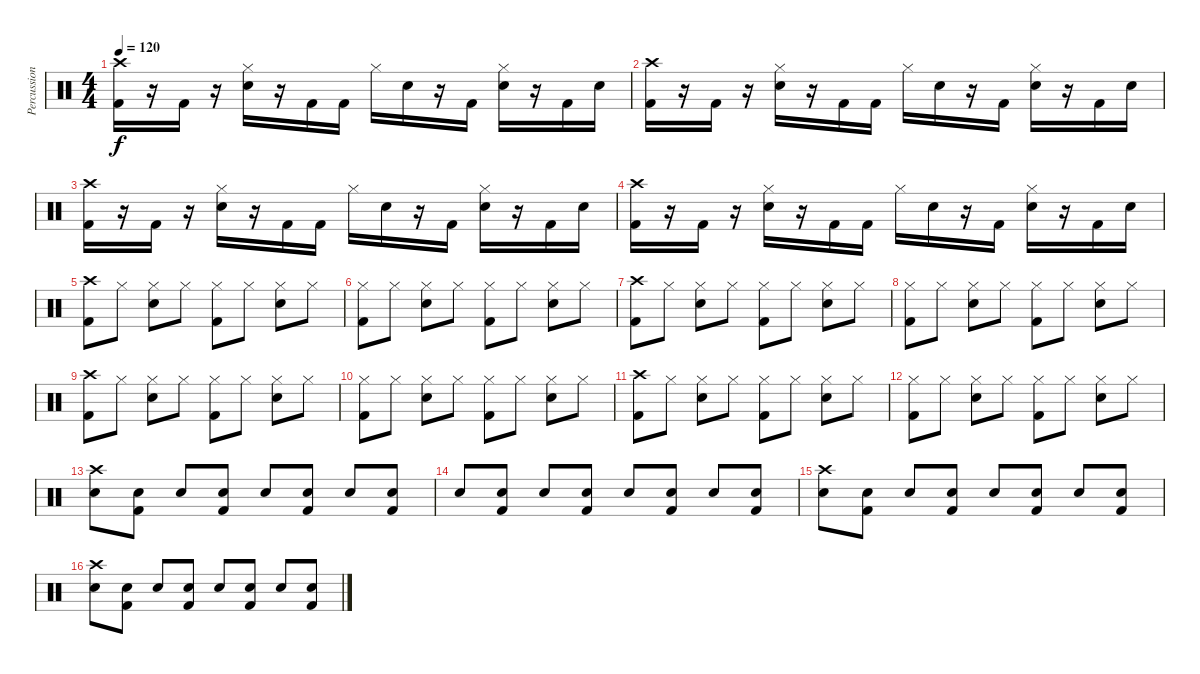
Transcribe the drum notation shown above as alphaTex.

\track ("Percussion" "Percussion") {instrument percussion}
\staff {score}
\articulation defaults
\ts (4 4)
\tempo 120
\clef neutral
\ks c
("Crash high (hit)" "Kick (hit) 2").16{dy f} r.16 "Kick (hit) 2".16 r.16 ("Hi-Hat (closed)" "Electric Snare (hit)").16 r.16 "Kick (hit) 2".16 "Kick (hit) 2".16 "Hi-Hat (closed)".16 "Electric Snare (hit)".16 r.16 "Kick (hit) 2".16 ("Hi-Hat (closed)" "Electric Snare (hit)").16 r.16 "Kick (hit) 2".16 "Electric Snare (hit)".16 |
("Crash high (hit)" "Kick (hit) 2").16 r.16 "Kick (hit) 2".16 r.16 ("Hi-Hat (closed)" "Electric Snare (hit)").16 r.16 "Kick (hit) 2".16 "Kick (hit) 2".16 "Hi-Hat (closed)".16 "Electric Snare (hit)".16 r.16 "Kick (hit) 2".16 ("Hi-Hat (closed)" "Electric Snare (hit)").16 r.16 "Kick (hit) 2".16 "Electric Snare (hit)".16 |
("Crash high (hit)" "Kick (hit) 2").16 r.16 "Kick (hit) 2".16 r.16 ("Hi-Hat (closed)" "Electric Snare (hit)").16 r.16 "Kick (hit) 2".16 "Kick (hit) 2".16 "Hi-Hat (closed)".16 "Electric Snare (hit)".16 r.16 "Kick (hit) 2".16 ("Hi-Hat (closed)" "Electric Snare (hit)").16 r.16 "Kick (hit) 2".16 "Electric Snare (hit)".16 |
("Crash high (hit)" "Kick (hit) 2").16 r.16 "Kick (hit) 2".16 r.16 ("Hi-Hat (closed)" "Electric Snare (hit)").16 r.16 "Kick (hit) 2".16 "Kick (hit) 2".16 "Hi-Hat (closed)".16 "Electric Snare (hit)".16 r.16 "Kick (hit) 2".16 ("Hi-Hat (closed)" "Electric Snare (hit)").16 r.16 "Kick (hit) 2".16 "Electric Snare (hit)".16 |
("Crash high (hit)" "Kick (hit) 2").8 "Hi-Hat (closed)".8 ("Hi-Hat (closed)" "Snare (hit) 2").8 "Hi-Hat (closed)".8 ("Hi-Hat (closed)" "Kick (hit) 2").8 "Hi-Hat (closed)".8 ("Hi-Hat (closed)" "Electric Snare (hit)").8 "Hi-Hat (closed)".8 |
("Hi-Hat (closed)" "Kick (hit) 2").8 "Hi-Hat (closed)".8 ("Hi-Hat (closed)" "Snare (hit) 2").8 "Hi-Hat (closed)".8 ("Hi-Hat (closed)" "Kick (hit) 2").8 "Hi-Hat (closed)".8 ("Hi-Hat (closed)" "Snare (hit) 2").8 "Hi-Hat (closed)".8 |
("Crash high (hit)" "Kick (hit) 2").8 "Hi-Hat (closed)".8 ("Hi-Hat (closed)" "Snare (hit) 2").8 "Hi-Hat (closed)".8 ("Hi-Hat (closed)" "Kick (hit) 2").8 "Hi-Hat (closed)".8 ("Hi-Hat (closed)" "Snare (hit) 2").8 "Hi-Hat (closed)".8 |
("Hi-Hat (closed)" "Kick (hit) 2").8 "Hi-Hat (closed)".8 ("Hi-Hat (closed)" "Snare (hit) 2").8 "Hi-Hat (closed)".8 ("Hi-Hat (closed)" "Kick (hit) 2").8 "Hi-Hat (closed)".8 ("Hi-Hat (closed)" "Snare (hit) 2").8 "Hi-Hat (closed)".8 |
("Crash high (hit)" "Kick (hit) 2").8 "Hi-Hat (closed)".8 ("Hi-Hat (closed)" "Snare (hit) 2").8 "Hi-Hat (closed)".8 ("Hi-Hat (closed)" "Kick (hit) 2").8 "Hi-Hat (closed)".8 ("Hi-Hat (closed)" "Snare (hit) 2").8 "Hi-Hat (closed)".8 |
("Hi-Hat (closed)" "Kick (hit) 2").8 "Hi-Hat (closed)".8 ("Hi-Hat (closed)" "Snare (hit) 2").8 "Hi-Hat (closed)".8 ("Hi-Hat (closed)" "Kick (hit) 2").8 "Hi-Hat (closed)".8 ("Hi-Hat (closed)" "Snare (hit) 2").8 "Hi-Hat (closed)".8 |
("Crash high (hit)" "Kick (hit) 2").8 "Hi-Hat (closed)".8 ("Hi-Hat (closed)" "Snare (hit) 2").8 "Hi-Hat (closed)".8 ("Hi-Hat (closed)" "Kick (hit) 2").8 "Hi-Hat (closed)".8 ("Hi-Hat (closed)" "Snare (hit) 2").8 "Hi-Hat (closed)".8 |
("Hi-Hat (closed)" "Kick (hit) 2").8 "Hi-Hat (closed)".8 ("Hi-Hat (closed)" "Snare (hit) 2").8 "Hi-Hat (closed)".8 ("Hi-Hat (closed)" "Kick (hit) 2").8 "Hi-Hat (closed)".8 ("Hi-Hat (closed)" "Snare (hit) 2").8 "Hi-Hat (closed)".8 |
("Snare (hit) 2" "Crash high (hit)").8 ("Snare (hit) 2" "Kick (hit) 2").8 "Snare (hit) 2".8 ("Snare (hit) 2" "Kick (hit) 2").8 "Snare (hit) 2".8 ("Snare (hit) 2" "Kick (hit) 2").8 "Snare (hit) 2".8 ("Snare (hit) 2" "Kick (hit) 2").8 |
"Snare (hit) 2".8 ("Snare (hit) 2" "Kick (hit) 2").8 "Snare (hit) 2".8 ("Snare (hit) 2" "Kick (hit) 2").8 "Snare (hit) 2".8 ("Snare (hit) 2" "Kick (hit) 2").8 "Snare (hit) 2".8 ("Snare (hit) 2" "Kick (hit) 2").8 |
("Snare (hit) 2" "Crash high (hit)").8 ("Snare (hit) 2" "Kick (hit) 2").8 "Snare (hit) 2".8 ("Snare (hit) 2" "Kick (hit) 2").8 "Snare (hit) 2".8 ("Snare (hit) 2" "Kick (hit) 2").8 "Snare (hit) 2".8 ("Snare (hit) 2" "Kick (hit) 2").8 |
("Snare (hit) 2" "Crash high (hit)").8 ("Snare (hit) 2" "Kick (hit) 2").8 "Snare (hit) 2".8 ("Snare (hit) 2" "Kick (hit) 2").8 "Snare (hit) 2".8 ("Snare (hit) 2" "Kick (hit) 2").8 "Snare (hit) 2".8 ("Snare (hit) 2" "Kick (hit) 2").8
